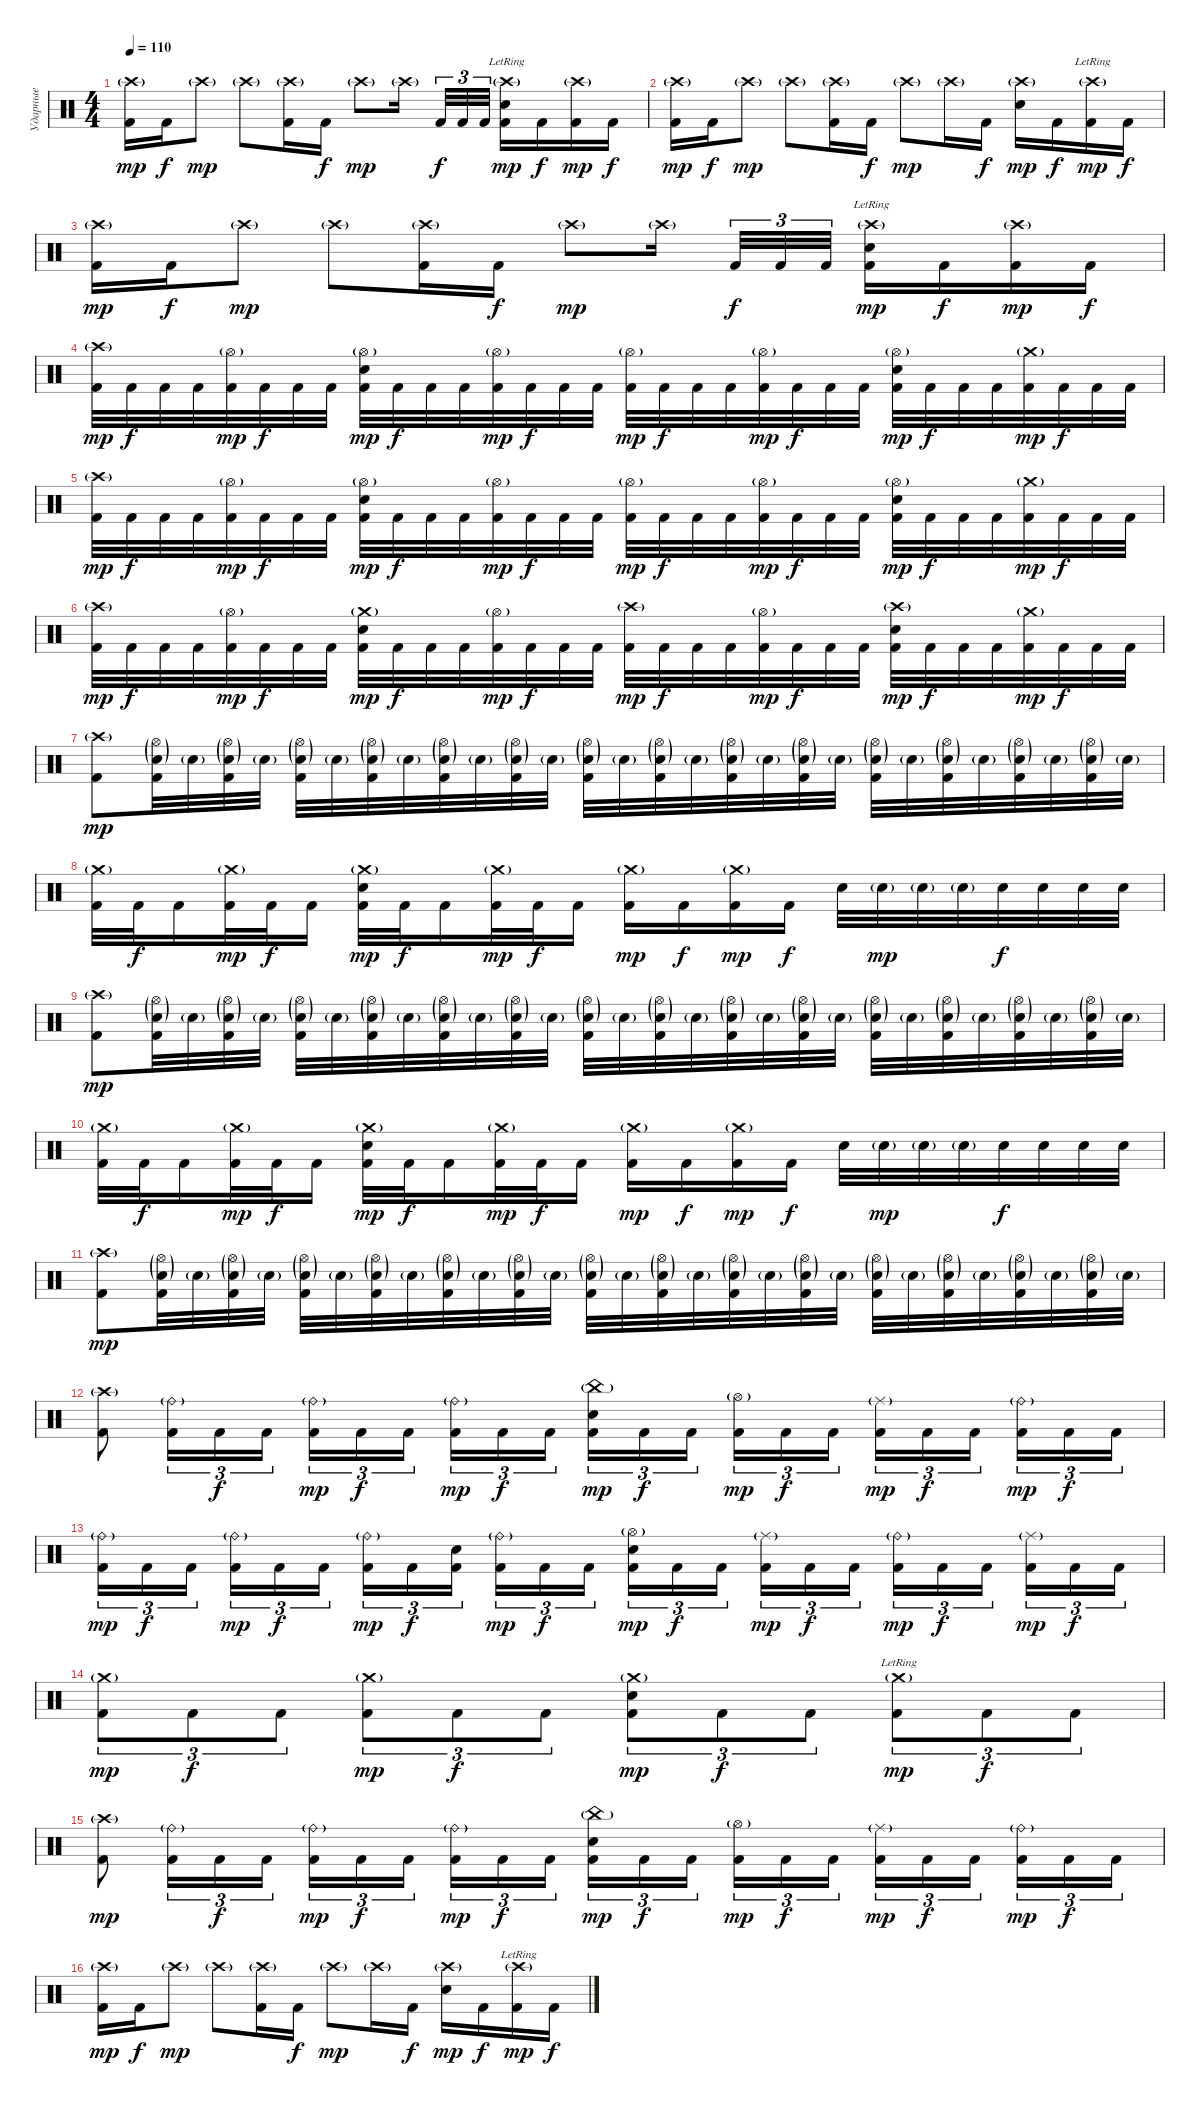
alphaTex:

\track ("Ударные" "Ударные") {instrument percussion}
\staff {score}
\articulation defaults
\ts (4 4)
\tempo 110
\clef neutral
\ks c
("Crash high (hit)"{g} "Kick (hit) 2").16{dy mp} "Kick (hit) 2".16{dy f} "Crash high (hit)"{g}.8{dy mp} "Crash high (hit)"{g}.8 ("Crash high (hit)"{g} "Kick (hit) 2").16 "Kick (hit) 2".16{dy f} "Crash high (hit)"{g}.8{dy mp} "Crash high (hit)"{g}.16 "Kick (hit) 2".32{tu (3 2) dy f} "Kick (hit) 2".32{tu (3 2)} "Kick (hit) 2".32{tu (3 2)} ("Crash high (hit)"{g lr} "Electric Snare (hit)" "Kick (hit) 2").16{dy mp} "Kick (hit) 2".16{dy f} ("Crash high (hit)"{g} "Kick (hit) 2").16{dy mp} "Kick (hit) 2".16{dy f} |
("Crash high (hit)"{g} "Kick (hit) 2").16{dy mp} "Kick (hit) 2".16{dy f} "Crash high (hit)"{g}.8{dy mp} "Crash high (hit)"{g}.8 ("Crash high (hit)"{g} "Kick (hit) 2").16 "Kick (hit) 2".16{dy f} "Crash high (hit)"{g}.8{dy mp} "Crash high (hit)"{g}.16 "Kick (hit) 2".16{dy f} ("Crash high (hit)"{g} "Electric Snare (hit)").16{dy mp} "Kick (hit) 2".16{dy f} ("Crash high (hit)"{g lr} "Kick (hit) 2").16{dy mp} "Kick (hit) 2".16{dy f} |
("Crash high (hit)"{g} "Kick (hit) 2").16{dy mp} "Kick (hit) 2".16{dy f} "Crash high (hit)"{g}.8{dy mp} "Crash high (hit)"{g}.8 ("Crash high (hit)"{g} "Kick (hit) 2").16 "Kick (hit) 2".16{dy f} "Crash high (hit)"{g}.8{dy mp} "Crash high (hit)"{g}.16 "Kick (hit) 2".32{tu (3 2) dy f} "Kick (hit) 2".32{tu (3 2)} "Kick (hit) 2".32{tu (3 2)} ("Crash high (hit)"{g lr} "Electric Snare (hit)" "Kick (hit) 2").16{dy mp} "Kick (hit) 2".16{dy f} ("Crash high (hit)"{g} "Kick (hit) 2").16{dy mp} "Kick (hit) 2".16{dy f} |
("Crash high (hit)"{g} "Kick (hit) 2").32{dy mp} "Kick (hit) 2".32{dy f} "Kick (hit) 2".32 "Kick (hit) 2".32 ("Hi-Hat (open)"{g} "Kick (hit) 2").32{dy mp} "Kick (hit) 2".32{dy f} "Kick (hit) 2".32 "Kick (hit) 2".32 ("Hi-Hat (open)"{g} "Electric Snare (hit)" "Kick (hit) 2").32{dy mp} "Kick (hit) 2".32{dy f} "Kick (hit) 2".32 "Kick (hit) 2".32 ("Hi-Hat (open)"{g} "Kick (hit) 2").32{dy mp} "Kick (hit) 2".32{dy f} "Kick (hit) 2".32 "Kick (hit) 2".32 ("Hi-Hat (open)"{g} "Kick (hit) 2").32{dy mp} "Kick (hit) 2".32{dy f} "Kick (hit) 2".32 "Kick (hit) 2".32 ("Hi-Hat (open)"{g} "Kick (hit) 2").32{dy mp} "Kick (hit) 2".32{dy f} "Kick (hit) 2".32 "Kick (hit) 2".32 ("Hi-Hat (open)"{g} "Electric Snare (hit)" "Kick (hit) 2").32{dy mp} "Kick (hit) 2".32{dy f} "Kick (hit) 2".32 "Kick (hit) 2".32 ("Crash medium (hit)"{g} "Kick (hit) 2").32{dy mp} "Kick (hit) 2".32{dy f} "Kick (hit) 2".32 "Kick (hit) 2".32 |
("Crash high (hit)"{g} "Kick (hit) 2").32{dy mp} "Kick (hit) 2".32{dy f} "Kick (hit) 2".32 "Kick (hit) 2".32 ("Hi-Hat (open)"{g} "Kick (hit) 2").32{dy mp} "Kick (hit) 2".32{dy f} "Kick (hit) 2".32 "Kick (hit) 2".32 ("Hi-Hat (open)"{g} "Electric Snare (hit)" "Kick (hit) 2").32{dy mp} "Kick (hit) 2".32{dy f} "Kick (hit) 2".32 "Kick (hit) 2".32 ("Hi-Hat (open)"{g} "Kick (hit) 2").32{dy mp} "Kick (hit) 2".32{dy f} "Kick (hit) 2".32 "Kick (hit) 2".32 ("Hi-Hat (open)"{g} "Kick (hit) 2").32{dy mp} "Kick (hit) 2".32{dy f} "Kick (hit) 2".32 "Kick (hit) 2".32 ("Hi-Hat (open)"{g} "Kick (hit) 2").32{dy mp} "Kick (hit) 2".32{dy f} "Kick (hit) 2".32 "Kick (hit) 2".32 ("Hi-Hat (open)"{g} "Electric Snare (hit)" "Kick (hit) 2").32{dy mp} "Kick (hit) 2".32{dy f} "Kick (hit) 2".32 "Kick (hit) 2".32 ("Crash medium (hit)"{g} "Kick (hit) 2").32{dy mp} "Kick (hit) 2".32{dy f} "Kick (hit) 2".32 "Kick (hit) 2".32 |
("Crash high (hit)"{g} "Kick (hit) 2").32{dy mp} "Kick (hit) 2".32{dy f} "Kick (hit) 2".32 "Kick (hit) 2".32 ("Hi-Hat (open)"{g} "Kick (hit) 2").32{dy mp} "Kick (hit) 2".32{dy f} "Kick (hit) 2".32 "Kick (hit) 2".32 ("Crash medium (hit)"{g} "Electric Snare (hit)" "Kick (hit) 2").32{dy mp} "Kick (hit) 2".32{dy f} "Kick (hit) 2".32 "Kick (hit) 2".32 ("Hi-Hat (open)"{g} "Kick (hit) 2").32{dy mp} "Kick (hit) 2".32{dy f} "Kick (hit) 2".32 "Kick (hit) 2".32 ("Crash high (hit)"{g} "Kick (hit) 2").32{dy mp} "Kick (hit) 2".32{dy f} "Kick (hit) 2".32 "Kick (hit) 2".32 ("Hi-Hat (open)"{g} "Kick (hit) 2").32{dy mp} "Kick (hit) 2".32{dy f} "Kick (hit) 2".32 "Kick (hit) 2".32 ("Crash high (hit)"{g} "Electric Snare (hit)" "Kick (hit) 2").32{dy mp} "Kick (hit) 2".32{dy f} "Kick (hit) 2".32 "Kick (hit) 2".32 ("Crash medium (hit)"{g} "Kick (hit) 2").32{dy mp} "Kick (hit) 2".32{dy f} "Kick (hit) 2".32 "Kick (hit) 2".32 |
("Crash high (hit)"{g} "Kick (hit) 2").8{dy mp} ("Hi-Hat (open)"{g} "Electric Snare (hit)"{g} "Kick (hit) 2").32 "Electric Snare (hit)"{g}.32 ("Hi-Hat (open)"{g} "Electric Snare (hit)"{g} "Kick (hit) 2").32 "Electric Snare (hit)"{g}.32 ("Hi-Hat (open)"{g} "Electric Snare (hit)"{g} "Kick (hit) 2").32 "Electric Snare (hit)"{g}.32 ("Hi-Hat (open)"{g} "Electric Snare (hit)"{g} "Kick (hit) 2").32 "Electric Snare (hit)"{g}.32 ("Hi-Hat (open)"{g} "Electric Snare (hit)"{g} "Kick (hit) 2").32 "Electric Snare (hit)"{g}.32 ("Hi-Hat (open)"{g} "Electric Snare (hit)"{g} "Kick (hit) 2").32 "Electric Snare (hit)"{g}.32 ("Hi-Hat (open)"{g} "Electric Snare (hit)"{g} "Kick (hit) 2").32 "Electric Snare (hit)"{g}.32 ("Hi-Hat (open)"{g} "Electric Snare (hit)"{g} "Kick (hit) 2").32 "Electric Snare (hit)"{g}.32 ("Hi-Hat (open)"{g} "Electric Snare (hit)"{g} "Kick (hit) 2").32 "Electric Snare (hit)"{g}.32 ("Hi-Hat (open)"{g} "Electric Snare (hit)"{g} "Kick (hit) 2").32 "Electric Snare (hit)"{g}.32 ("Hi-Hat (open)"{g} "Electric Snare (hit)"{g} "Kick (hit) 2").32 "Electric Snare (hit)"{g}.32 ("Hi-Hat (open)"{g} "Electric Snare (hit)"{g} "Kick (hit) 2").32 "Electric Snare (hit)"{g}.32 ("Hi-Hat (open)"{g} "Electric Snare (hit)"{g} "Kick (hit) 2").32 "Electric Snare (hit)"{g}.32 ("Hi-Hat (open)"{g} "Electric Snare (hit)"{g} "Kick (hit) 2").32 "Electric Snare (hit)"{g}.32 |
("Crash medium (hit)"{g} "Kick (hit) 2").32 "Kick (hit) 2".32{dy f} "Kick (hit) 2".16 ("Crash medium (hit)"{g} "Kick (hit) 2").32{dy mp} "Kick (hit) 2".32{dy f} "Kick (hit) 2".16 ("Crash medium (hit)"{g} "Electric Snare (hit)" "Kick (hit) 2").32{dy mp} "Kick (hit) 2".32{dy f} "Kick (hit) 2".16 ("Crash medium (hit)"{g} "Kick (hit) 2").32{dy mp} "Kick (hit) 2".32{dy f} "Kick (hit) 2".16 ("Crash medium (hit)"{g} "Kick (hit) 2").16{dy mp} "Kick (hit) 2".16{dy f} ("Crash medium (hit)"{g} "Kick (hit) 2").16{dy mp} "Kick (hit) 2".16{dy f} "Electric Snare (hit)".32 "Electric Snare (hit)"{g}.32{dy mp} "Electric Snare (hit)"{g}.32 "Electric Snare (hit)"{g}.32 "Electric Snare (hit)".32{dy f} "Electric Snare (hit)".32 "Electric Snare (hit)".32 "Electric Snare (hit)".32 |
("Crash high (hit)"{g} "Kick (hit) 2").8{dy mp} ("Hi-Hat (open)"{g} "Electric Snare (hit)"{g} "Kick (hit) 2").32 "Electric Snare (hit)"{g}.32 ("Hi-Hat (open)"{g} "Electric Snare (hit)"{g} "Kick (hit) 2").32 "Electric Snare (hit)"{g}.32 ("Hi-Hat (open)"{g} "Electric Snare (hit)"{g} "Kick (hit) 2").32 "Electric Snare (hit)"{g}.32 ("Hi-Hat (open)"{g} "Electric Snare (hit)"{g} "Kick (hit) 2").32 "Electric Snare (hit)"{g}.32 ("Hi-Hat (open)"{g} "Electric Snare (hit)"{g} "Kick (hit) 2").32 "Electric Snare (hit)"{g}.32 ("Hi-Hat (open)"{g} "Electric Snare (hit)"{g} "Kick (hit) 2").32 "Electric Snare (hit)"{g}.32 ("Hi-Hat (open)"{g} "Electric Snare (hit)"{g} "Kick (hit) 2").32 "Electric Snare (hit)"{g}.32 ("Hi-Hat (open)"{g} "Electric Snare (hit)"{g} "Kick (hit) 2").32 "Electric Snare (hit)"{g}.32 ("Hi-Hat (open)"{g} "Electric Snare (hit)"{g} "Kick (hit) 2").32 "Electric Snare (hit)"{g}.32 ("Hi-Hat (open)"{g} "Electric Snare (hit)"{g} "Kick (hit) 2").32 "Electric Snare (hit)"{g}.32 ("Hi-Hat (open)"{g} "Electric Snare (hit)"{g} "Kick (hit) 2").32 "Electric Snare (hit)"{g}.32 ("Hi-Hat (open)"{g} "Electric Snare (hit)"{g} "Kick (hit) 2").32 "Electric Snare (hit)"{g}.32 ("Hi-Hat (open)"{g} "Electric Snare (hit)"{g} "Kick (hit) 2").32 "Electric Snare (hit)"{g}.32 ("Hi-Hat (open)"{g} "Electric Snare (hit)"{g} "Kick (hit) 2").32 "Electric Snare (hit)"{g}.32 |
("Crash medium (hit)"{g} "Kick (hit) 2").32 "Kick (hit) 2".32{dy f} "Kick (hit) 2".16 ("Crash medium (hit)"{g} "Kick (hit) 2").32{dy mp} "Kick (hit) 2".32{dy f} "Kick (hit) 2".16 ("Crash medium (hit)"{g} "Electric Snare (hit)" "Kick (hit) 2").32{dy mp} "Kick (hit) 2".32{dy f} "Kick (hit) 2".16 ("Crash medium (hit)"{g} "Kick (hit) 2").32{dy mp} "Kick (hit) 2".32{dy f} "Kick (hit) 2".16 ("Crash medium (hit)"{g} "Kick (hit) 2").16{dy mp} "Kick (hit) 2".16{dy f} ("Crash medium (hit)"{g} "Kick (hit) 2").16{dy mp} "Kick (hit) 2".16{dy f} "Electric Snare (hit)".32 "Electric Snare (hit)"{g}.32{dy mp} "Electric Snare (hit)"{g}.32 "Electric Snare (hit)"{g}.32 "Electric Snare (hit)".32{dy f} "Electric Snare (hit)".32 "Electric Snare (hit)".32 "Electric Snare (hit)".32 |
("Crash high (hit)"{g} "Kick (hit) 2").8{dy mp} ("Hi-Hat (open)"{g} "Electric Snare (hit)"{g} "Kick (hit) 2").32 "Electric Snare (hit)"{g}.32 ("Hi-Hat (open)"{g} "Electric Snare (hit)"{g} "Kick (hit) 2").32 "Electric Snare (hit)"{g}.32 ("Hi-Hat (open)"{g} "Electric Snare (hit)"{g} "Kick (hit) 2").32 "Electric Snare (hit)"{g}.32 ("Hi-Hat (open)"{g} "Electric Snare (hit)"{g} "Kick (hit) 2").32 "Electric Snare (hit)"{g}.32 ("Hi-Hat (open)"{g} "Electric Snare (hit)"{g} "Kick (hit) 2").32 "Electric Snare (hit)"{g}.32 ("Hi-Hat (open)"{g} "Electric Snare (hit)"{g} "Kick (hit) 2").32 "Electric Snare (hit)"{g}.32 ("Hi-Hat (open)"{g} "Electric Snare (hit)"{g} "Kick (hit) 2").32 "Electric Snare (hit)"{g}.32 ("Hi-Hat (open)"{g} "Electric Snare (hit)"{g} "Kick (hit) 2").32 "Electric Snare (hit)"{g}.32 ("Hi-Hat (open)"{g} "Electric Snare (hit)"{g} "Kick (hit) 2").32 "Electric Snare (hit)"{g}.32 ("Hi-Hat (open)"{g} "Electric Snare (hit)"{g} "Kick (hit) 2").32 "Electric Snare (hit)"{g}.32 ("Hi-Hat (open)"{g} "Electric Snare (hit)"{g} "Kick (hit) 2").32 "Electric Snare (hit)"{g}.32 ("Hi-Hat (open)"{g} "Electric Snare (hit)"{g} "Kick (hit) 2").32 "Electric Snare (hit)"{g}.32 ("Hi-Hat (open)"{g} "Electric Snare (hit)"{g} "Kick (hit) 2").32 "Electric Snare (hit)"{g}.32 ("Hi-Hat (open)"{g} "Electric Snare (hit)"{g} "Kick (hit) 2").32 "Electric Snare (hit)"{g}.32 |
("Crash high (hit)"{g} "Kick (hit) 2").8 ("Ride (bell)"{g} "Kick (hit) 2").16{tu (3 2)} "Kick (hit) 2".16{tu (3 2) dy f} "Kick (hit) 2".16{tu (3 2)} ("Ride (bell)"{g} "Kick (hit) 2").16{tu (3 2) dy mp} "Kick (hit) 2".16{tu (3 2) dy f} "Kick (hit) 2".16{tu (3 2)} ("Ride (bell)"{g} "Kick (hit) 2").16{tu (3 2) dy mp} "Kick (hit) 2".16{tu (3 2) dy f} "Kick (hit) 2".16{tu (3 2)} ("China (hit)"{g} "Electric Snare (hit)" "Kick (hit) 2").16{tu (3 2) dy mp} "Kick (hit) 2".16{tu (3 2) dy f} "Kick (hit) 2".16{tu (3 2)} ("Hi-Hat (open)"{g} "Kick (hit) 2").16{tu (3 2) dy mp} "Kick (hit) 2".16{tu (3 2) dy f} "Kick (hit) 2".16{tu (3 2)} ("Ride (middle)"{g} "Kick (hit) 2").16{tu (3 2) dy mp} "Kick (hit) 2".16{tu (3 2) dy f} "Kick (hit) 2".16{tu (3 2)} ("Ride (bell)"{g} "Kick (hit) 2").16{tu (3 2) dy mp} "Kick (hit) 2".16{tu (3 2) dy f} "Kick (hit) 2".16{tu (3 2)} |
("Ride (bell)"{g} "Kick (hit) 2").16{tu (3 2) dy mp} "Kick (hit) 2".16{tu (3 2) dy f} "Kick (hit) 2".16{tu (3 2)} ("Ride (bell)"{g} "Kick (hit) 2").16{tu (3 2) dy mp} "Kick (hit) 2".16{tu (3 2) dy f} "Kick (hit) 2".16{tu (3 2)} ("Ride (bell)"{g} "Kick (hit) 2").16{tu (3 2) dy mp} "Kick (hit) 2".16{tu (3 2) dy f} ("Electric Snare (hit)" "Kick (hit) 2").16{tu (3 2)} ("Ride (bell)"{g} "Kick (hit) 2").16{tu (3 2) dy mp} "Kick (hit) 2".16{tu (3 2) dy f} "Kick (hit) 2".16{tu (3 2)} ("Hi-Hat (open)"{g} "Electric Snare (hit)" "Kick (hit) 2").16{tu (3 2) dy mp} "Kick (hit) 2".16{tu (3 2) dy f} "Kick (hit) 2".16{tu (3 2)} ("Ride (middle)"{g} "Kick (hit) 2").16{tu (3 2) dy mp} "Kick (hit) 2".16{tu (3 2) dy f} "Kick (hit) 2".16{tu (3 2)} ("Ride (bell)"{g} "Kick (hit) 2").16{tu (3 2) dy mp} "Kick (hit) 2".16{tu (3 2) dy f} "Kick (hit) 2".16{tu (3 2)} ("Ride (middle)"{g} "Kick (hit) 2").16{tu (3 2) dy mp} "Kick (hit) 2".16{tu (3 2) dy f} "Kick (hit) 2".16{tu (3 2)} |
("Crash medium (hit)"{g} "Kick (hit) 2").8{tu (3 2) dy mp} "Kick (hit) 2".8{tu (3 2) dy f} "Kick (hit) 2".8{tu (3 2)} ("Crash medium (hit)"{g} "Kick (hit) 2").8{tu (3 2) dy mp} "Kick (hit) 2".8{tu (3 2) dy f} "Kick (hit) 2".8{tu (3 2)} ("Crash medium (hit)"{g} "Electric Snare (hit)" "Kick (hit) 2").8{tu (3 2) dy mp} "Kick (hit) 2".8{tu (3 2) dy f} "Kick (hit) 2".8{tu (3 2)} ("Crash medium (hit)"{g lr} "Kick (hit) 2").8{tu (3 2) dy mp} "Kick (hit) 2".8{tu (3 2) dy f} "Kick (hit) 2".8{tu (3 2)} |
("Crash high (hit)"{g} "Kick (hit) 2").8{dy mp} ("Ride (bell)"{g} "Kick (hit) 2").16{tu (3 2)} "Kick (hit) 2".16{tu (3 2) dy f} "Kick (hit) 2".16{tu (3 2)} ("Ride (bell)"{g} "Kick (hit) 2").16{tu (3 2) dy mp} "Kick (hit) 2".16{tu (3 2) dy f} "Kick (hit) 2".16{tu (3 2)} ("Ride (bell)"{g} "Kick (hit) 2").16{tu (3 2) dy mp} "Kick (hit) 2".16{tu (3 2) dy f} "Kick (hit) 2".16{tu (3 2)} ("China (hit)"{g} "Electric Snare (hit)" "Kick (hit) 2").16{tu (3 2) dy mp} "Kick (hit) 2".16{tu (3 2) dy f} "Kick (hit) 2".16{tu (3 2)} ("Hi-Hat (open)"{g} "Kick (hit) 2").16{tu (3 2) dy mp} "Kick (hit) 2".16{tu (3 2) dy f} "Kick (hit) 2".16{tu (3 2)} ("Ride (middle)"{g} "Kick (hit) 2").16{tu (3 2) dy mp} "Kick (hit) 2".16{tu (3 2) dy f} "Kick (hit) 2".16{tu (3 2)} ("Ride (bell)"{g} "Kick (hit) 2").16{tu (3 2) dy mp} "Kick (hit) 2".16{tu (3 2) dy f} "Kick (hit) 2".16{tu (3 2)} |
("Crash high (hit)"{g} "Kick (hit) 2").16{dy mp} "Kick (hit) 2".16{dy f} "Crash high (hit)"{g}.8{dy mp} "Crash high (hit)"{g}.8 ("Crash high (hit)"{g} "Kick (hit) 2").16 "Kick (hit) 2".16{dy f} "Crash high (hit)"{g}.8{dy mp} "Crash high (hit)"{g}.16 "Kick (hit) 2".16{dy f} ("Crash high (hit)"{g} "Electric Snare (hit)").16{dy mp} "Kick (hit) 2".16{dy f} ("Crash high (hit)"{g lr} "Kick (hit) 2").16{dy mp} "Kick (hit) 2".16{dy f}
